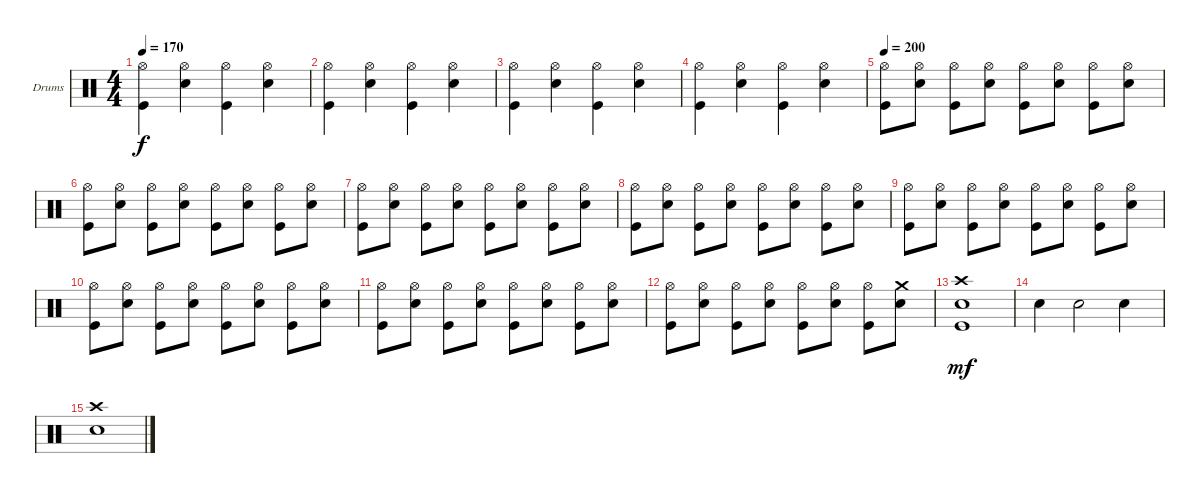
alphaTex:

\defaultSystemsLayout 4
\bracketExtendMode groupsimilarinstruments
\firstSystemTrackNameOrientation horizontal
\otherSystemsTrackNameOrientation horizontal
\track ("Drumkit" "Drums") {instrument percussion}
\staff {score}
\articulation defaults
\ts (4 4)
\tempo 170
\clef neutral
\ks c
("Kick (hit)" "Hi-Hat (open)").4{dy f} ("Snare (hit) 2" "Hi-Hat (open)").4 ("Kick (hit)" "Hi-Hat (open)").4 ("Snare (hit) 2" "Hi-Hat (open)").4 |
("Kick (hit)" "Hi-Hat (open)").4 ("Snare (hit) 2" "Hi-Hat (open)").4 ("Kick (hit)" "Hi-Hat (open)").4 ("Snare (hit) 2" "Hi-Hat (open)").4 |
("Kick (hit)" "Hi-Hat (open)").4 ("Snare (hit) 2" "Hi-Hat (open)").4 ("Kick (hit)" "Hi-Hat (open)").4 ("Snare (hit) 2" "Hi-Hat (open)").4 |
("Kick (hit)" "Hi-Hat (open)").4 ("Snare (hit) 2" "Hi-Hat (open)").4 ("Kick (hit)" "Hi-Hat (open)").4 ("Snare (hit) 2" "Hi-Hat (open)").4 |
\tempo 200
("Kick (hit)" "Hi-Hat (open)").8 ("Snare (hit) 2" "Hi-Hat (open)").8 ("Kick (hit)" "Hi-Hat (open)").8 ("Snare (hit) 2" "Hi-Hat (open)").8 ("Kick (hit)" "Hi-Hat (open)").8 ("Snare (hit) 2" "Hi-Hat (open)").8 ("Kick (hit)" "Hi-Hat (open)").8 ("Snare (hit) 2" "Hi-Hat (open)").8 |
("Kick (hit)" "Hi-Hat (open)").8 ("Snare (hit) 2" "Hi-Hat (open)").8 ("Kick (hit)" "Hi-Hat (open)").8 ("Snare (hit) 2" "Hi-Hat (open)").8 ("Kick (hit)" "Hi-Hat (open)").8 ("Snare (hit) 2" "Hi-Hat (open)").8 ("Kick (hit)" "Hi-Hat (open)").8 ("Snare (hit) 2" "Hi-Hat (open)").8 |
("Kick (hit)" "Hi-Hat (open)").8 ("Snare (hit) 2" "Hi-Hat (open)").8 ("Kick (hit)" "Hi-Hat (open)").8 ("Snare (hit) 2" "Hi-Hat (open)").8 ("Kick (hit)" "Hi-Hat (open)").8 ("Snare (hit) 2" "Hi-Hat (open)").8 ("Kick (hit)" "Hi-Hat (open)").8 ("Snare (hit) 2" "Hi-Hat (open)").8 |
("Kick (hit)" "Hi-Hat (open)").8 ("Snare (hit) 2" "Hi-Hat (open)").8 ("Kick (hit)" "Hi-Hat (open)").8 ("Snare (hit) 2" "Hi-Hat (open)").8 ("Kick (hit)" "Hi-Hat (open)").8 ("Snare (hit) 2" "Hi-Hat (open)").8 ("Kick (hit)" "Hi-Hat (open)").8 ("Snare (hit) 2" "Hi-Hat (open)").8 |
("Kick (hit)" "Hi-Hat (open)").8 ("Snare (hit) 2" "Hi-Hat (open)").8 ("Kick (hit)" "Hi-Hat (open)").8 ("Snare (hit) 2" "Hi-Hat (open)").8 ("Kick (hit)" "Hi-Hat (open)").8 ("Snare (hit) 2" "Hi-Hat (open)").8 ("Kick (hit)" "Hi-Hat (open)").8 ("Snare (hit) 2" "Hi-Hat (open)").8 |
("Kick (hit)" "Hi-Hat (open)").8 ("Snare (hit) 2" "Hi-Hat (open)").8 ("Kick (hit)" "Hi-Hat (open)").8 ("Snare (hit) 2" "Hi-Hat (open)").8 ("Kick (hit)" "Hi-Hat (open)").8 ("Snare (hit) 2" "Hi-Hat (open)").8 ("Kick (hit)" "Hi-Hat (open)").8 ("Snare (hit) 2" "Hi-Hat (open)").8 |
("Kick (hit)" "Hi-Hat (open)").8 ("Snare (hit) 2" "Hi-Hat (open)").8 ("Kick (hit)" "Hi-Hat (open)").8 ("Snare (hit) 2" "Hi-Hat (open)").8 ("Kick (hit)" "Hi-Hat (open)").8 ("Snare (hit) 2" "Hi-Hat (open)").8 ("Kick (hit)" "Hi-Hat (open)").8 ("Snare (hit) 2" "Hi-Hat (open)").8 |
("Kick (hit)" "Hi-Hat (open)").8 ("Snare (hit) 2" "Hi-Hat (open)").8 ("Kick (hit)" "Hi-Hat (open)").8 ("Snare (hit) 2" "Hi-Hat (open)").8 ("Kick (hit)" "Hi-Hat (open)").8 ("Snare (hit) 2" "Hi-Hat (open)").8 ("Kick (hit)" "Hi-Hat (open)").8 ("Snare (hit) 2" "Crash medium (hit)").8 |
("Kick (hit)" "Crash high (hit)" "Snare (hit) 2").1{dy mf} |
"Snare (hit) 2".4 "Snare (hit) 2".2 "Snare (hit) 2".4 |
("Snare (hit) 2" "Crash high (hit)").1
